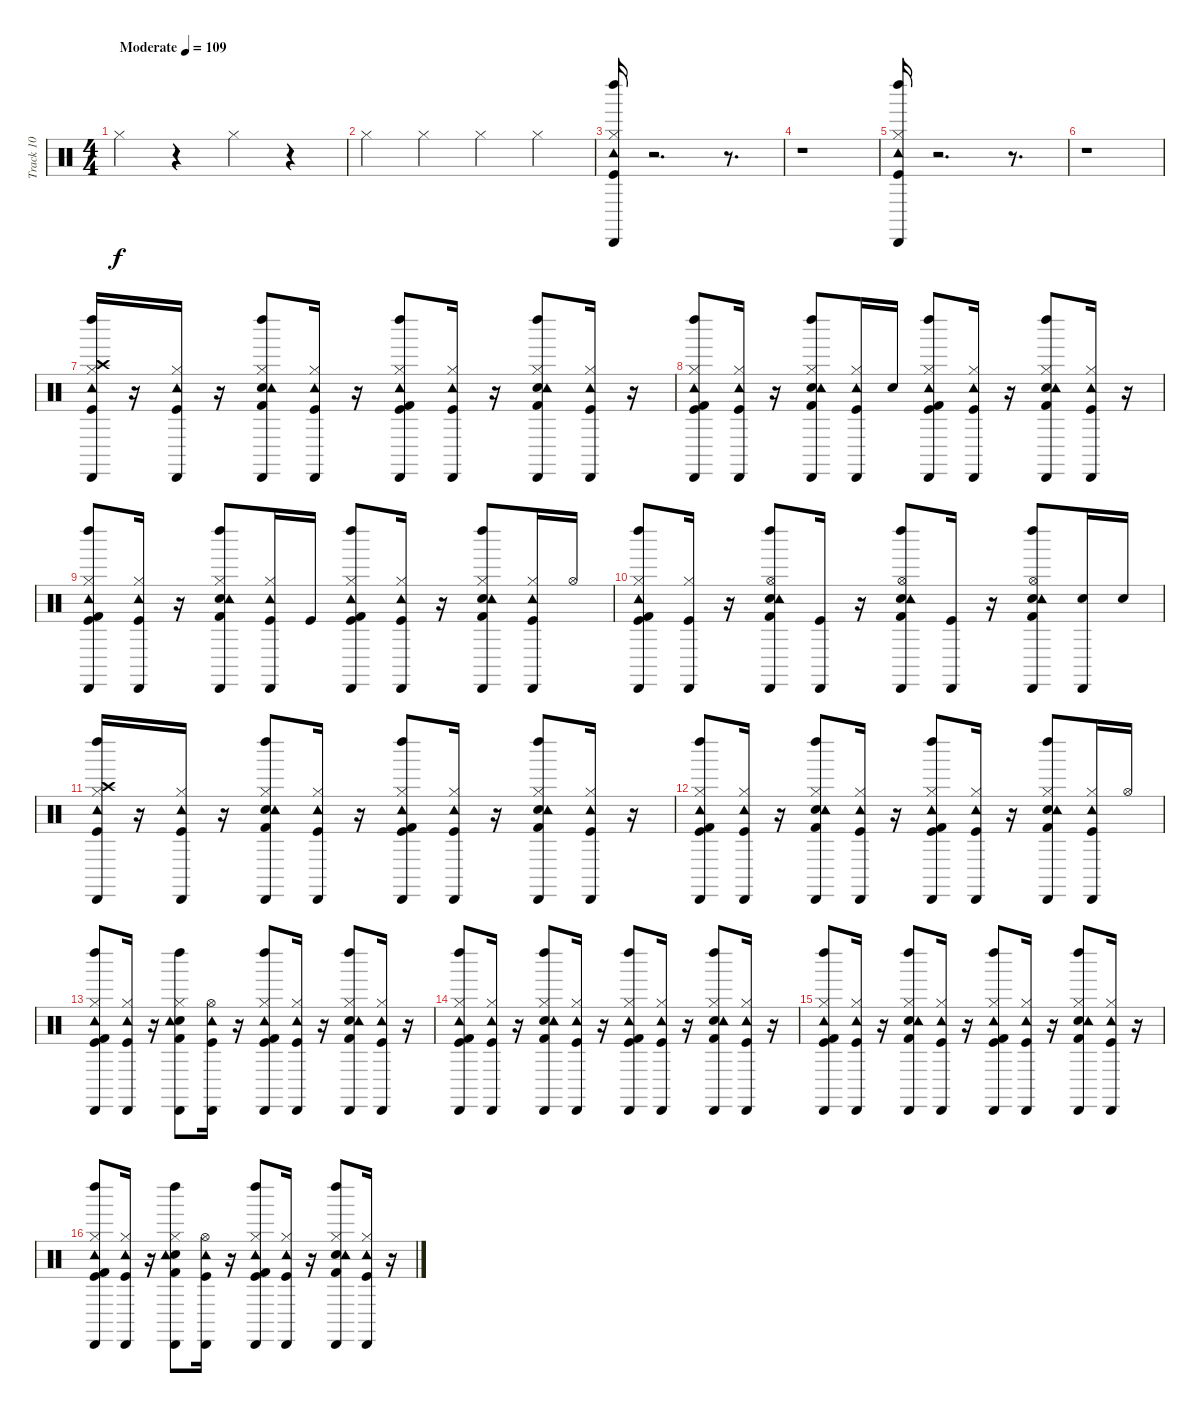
\track ("Track 10" "Track 10") {instrument percussion}
\staff {score}
\articulation defaults
\ts (4 4)
\tempo (109 "Moderate")
\clef neutral
\ks c "Hi-Hat (closed)".4{dy f}
r.4 "Hi-Hat (closed)".4 r.4 |
"Hi-Hat (closed)".4 "Hi-Hat (closed)".4 "Hi-Hat (closed)".4 "Hi-Hat (closed)".4 |
("Kick (hit)" "Hi-Hat (closed)" "Tambourine (hit)" "Left Maraca (hit)" "Cabasa (hit)").16 r.2{d} r.8{d} |
r.1 |
("Kick (hit)" "Hi-Hat (closed)" "Tambourine (hit)" "Left Maraca (hit)" "Cabasa (hit)").16 r.2{d} r.8{d} |
r.1 |
("Kick (hit)" "Hi-Hat (closed)" "Crash high (hit)" "Tambourine (hit)" "Left Maraca (hit)" "Cabasa (hit)").16 r.16 ("Kick (hit)" "Hi-Hat (closed)" "Tambourine (hit)" "Cabasa (hit)").16 r.16 ("Snare (hit) 2" "Hi-Hat (closed)" "Tambourine (hit)" "Left Maraca (hit)" "Cabasa (hit)" "Kick (hit) 2").8 ("Kick (hit)" "Hi-Hat (closed)" "Tambourine (hit)" "Cabasa (hit)").16 r.16 ("Kick (hit)" "Hi-Hat (closed)" "Tambourine (hit)" "Left Maraca (hit)" "Cabasa (hit)" "Kick (hit) 2").8 ("Kick (hit)" "Hi-Hat (closed)" "Tambourine (hit)" "Cabasa (hit)").16 r.16 ("Snare (hit) 2" "Hi-Hat (closed)" "Tambourine (hit)" "Left Maraca (hit)" "Cabasa (hit)" "Kick (hit) 2").8 ("Kick (hit)" "Hi-Hat (closed)" "Tambourine (hit)" "Cabasa (hit)").16 r.16 |
("Kick (hit)" "Hi-Hat (closed)" "Tambourine (hit)" "Left Maraca (hit)" "Cabasa (hit)" "Kick (hit) 2").8 ("Kick (hit)" "Hi-Hat (closed)" "Tambourine (hit)" "Cabasa (hit)").16 r.16 ("Snare (hit) 2" "Hi-Hat (closed)" "Tambourine (hit)" "Left Maraca (hit)" "Cabasa (hit)" "Kick (hit) 2").8 ("Kick (hit)" "Hi-Hat (closed)" "Tambourine (hit)" "Cabasa (hit)").16 "Snare (hit) 2".16 ("Kick (hit)" "Hi-Hat (closed)" "Tambourine (hit)" "Left Maraca (hit)" "Cabasa (hit)" "Kick (hit) 2").8 ("Kick (hit)" "Hi-Hat (closed)" "Tambourine (hit)" "Cabasa (hit)").16 r.16 ("Snare (hit) 2" "Hi-Hat (closed)" "Tambourine (hit)" "Left Maraca (hit)" "Cabasa (hit)" "Kick (hit) 2").8 ("Kick (hit)" "Hi-Hat (closed)" "Tambourine (hit)" "Cabasa (hit)").16 r.16 |
("Kick (hit)" "Hi-Hat (closed)" "Tambourine (hit)" "Left Maraca (hit)" "Cabasa (hit)" "Kick (hit) 2").8 ("Kick (hit)" "Hi-Hat (closed)" "Tambourine (hit)" "Cabasa (hit)").16 r.16 ("Snare (hit) 2" "Hi-Hat (closed)" "Tambourine (hit)" "Left Maraca (hit)" "Cabasa (hit)" "Kick (hit) 2").8 ("Kick (hit)" "Hi-Hat (closed)" "Tambourine (hit)" "Cabasa (hit)").16 "Kick (hit)".16 ("Kick (hit)" "Hi-Hat (closed)" "Tambourine (hit)" "Left Maraca (hit)" "Cabasa (hit)" "Kick (hit) 2").8 ("Kick (hit)" "Hi-Hat (closed)" "Tambourine (hit)" "Cabasa (hit)").16 r.16 ("Snare (hit) 2" "Hi-Hat (closed)" "Tambourine (hit)" "Left Maraca (hit)" "Cabasa (hit)" "Kick (hit) 2").8 ("Kick (hit)" "Hi-Hat (closed)" "Tambourine (hit)" "Cabasa (hit)").16 "Hi-Hat (open)".16 |
("Kick (hit)" "Hi-Hat (closed)" "Tambourine (hit)" "Left Maraca (hit)" "Cabasa (hit)" "Kick (hit) 2").8 ("Kick (hit)" "Hi-Hat (closed)" "Cabasa (hit)").16 r.16 ("Snare (hit) 2" "Hi-Hat (open)" "Tambourine (hit)" "Left Maraca (hit)" "Cabasa (hit)" "Kick (hit) 2").8 ("Kick (hit)" "Cabasa (hit)").16 r.16 ("Snare (hit) 2" "Hi-Hat (open)" "Tambourine (hit)" "Left Maraca (hit)" "Cabasa (hit)" "Kick (hit) 2").8 ("Kick (hit)" "Cabasa (hit)").16 r.16 ("Snare (hit) 2" "Hi-Hat (open)" "Tambourine (hit)" "Left Maraca (hit)" "Cabasa (hit)" "Kick (hit) 2").8 ("Snare (hit) 2" "Cabasa (hit)").16 "Snare (hit) 2".16 |
("Kick (hit)" "Hi-Hat (closed)" "Crash high (hit)" "Tambourine (hit)" "Left Maraca (hit)" "Cabasa (hit)").16 r.16 ("Kick (hit)" "Hi-Hat (closed)" "Tambourine (hit)" "Cabasa (hit)").16 r.16 ("Snare (hit) 2" "Hi-Hat (closed)" "Tambourine (hit)" "Left Maraca (hit)" "Cabasa (hit)" "Kick (hit) 2").8 ("Kick (hit)" "Hi-Hat (closed)" "Tambourine (hit)" "Cabasa (hit)").16 r.16 ("Kick (hit)" "Hi-Hat (closed)" "Tambourine (hit)" "Left Maraca (hit)" "Cabasa (hit)" "Kick (hit) 2").8 ("Kick (hit)" "Hi-Hat (closed)" "Tambourine (hit)" "Cabasa (hit)").16 r.16 ("Snare (hit) 2" "Hi-Hat (closed)" "Tambourine (hit)" "Left Maraca (hit)" "Cabasa (hit)" "Kick (hit) 2").8 ("Kick (hit)" "Hi-Hat (closed)" "Tambourine (hit)" "Cabasa (hit)").16 r.16 |
("Kick (hit)" "Hi-Hat (closed)" "Tambourine (hit)" "Left Maraca (hit)" "Cabasa (hit)" "Kick (hit) 2").8 ("Kick (hit)" "Hi-Hat (closed)" "Tambourine (hit)" "Cabasa (hit)").16 r.16 ("Snare (hit) 2" "Hi-Hat (closed)" "Tambourine (hit)" "Left Maraca (hit)" "Cabasa (hit)" "Kick (hit) 2").8 ("Kick (hit)" "Hi-Hat (closed)" "Tambourine (hit)" "Cabasa (hit)").16 r.16 ("Kick (hit)" "Hi-Hat (closed)" "Tambourine (hit)" "Left Maraca (hit)" "Cabasa (hit)" "Kick (hit) 2").8 ("Kick (hit)" "Hi-Hat (closed)" "Tambourine (hit)" "Cabasa (hit)").16 r.16 ("Snare (hit) 2" "Hi-Hat (closed)" "Tambourine (hit)" "Left Maraca (hit)" "Cabasa (hit)" "Kick (hit) 2").8 ("Kick (hit)" "Hi-Hat (closed)" "Tambourine (hit)" "Cabasa (hit)").16 "Hi-Hat (open)".16 |
("Kick (hit)" "Hi-Hat (closed)" "Tambourine (hit)" "Left Maraca (hit)" "Cabasa (hit)" "Kick (hit) 2").8 ("Kick (hit)" "Hi-Hat (closed)" "Tambourine (hit)" "Cabasa (hit)").16 r.16 ("Snare (hit) 2" "Hi-Hat (closed)" "Tambourine (hit)" "Left Maraca (hit)" "Cabasa (hit)" "Kick (hit) 2").8 ("Kick (hit)" "Hi-Hat (open)" "Tambourine (hit)" "Cabasa (hit)").16 r.16 ("Kick (hit)" "Hi-Hat (closed)" "Tambourine (hit)" "Left Maraca (hit)" "Cabasa (hit)" "Kick (hit) 2").8 ("Kick (hit)" "Hi-Hat (closed)" "Tambourine (hit)" "Cabasa (hit)").16 r.16 ("Snare (hit) 2" "Hi-Hat (closed)" "Tambourine (hit)" "Left Maraca (hit)" "Cabasa (hit)" "Kick (hit) 2").8 ("Kick (hit)" "Hi-Hat (closed)" "Tambourine (hit)" "Cabasa (hit)").16 r.16 |
("Kick (hit)" "Hi-Hat (closed)" "Tambourine (hit)" "Left Maraca (hit)" "Cabasa (hit)" "Kick (hit) 2").8 ("Kick (hit)" "Hi-Hat (closed)" "Tambourine (hit)" "Cabasa (hit)").16 r.16 ("Snare (hit) 2" "Hi-Hat (closed)" "Tambourine (hit)" "Left Maraca (hit)" "Cabasa (hit)" "Kick (hit) 2").8 ("Kick (hit)" "Hi-Hat (closed)" "Tambourine (hit)" "Cabasa (hit)").16 r.16 ("Kick (hit)" "Hi-Hat (closed)" "Tambourine (hit)" "Left Maraca (hit)" "Cabasa (hit)" "Kick (hit) 2").8 ("Kick (hit)" "Hi-Hat (closed)" "Tambourine (hit)" "Cabasa (hit)").16 r.16 ("Snare (hit) 2" "Hi-Hat (closed)" "Tambourine (hit)" "Left Maraca (hit)" "Cabasa (hit)" "Kick (hit) 2").8 ("Kick (hit)" "Hi-Hat (closed)" "Tambourine (hit)" "Cabasa (hit)").16 r.16 |
("Kick (hit)" "Hi-Hat (closed)" "Tambourine (hit)" "Left Maraca (hit)" "Cabasa (hit)" "Kick (hit) 2").8 ("Kick (hit)" "Hi-Hat (closed)" "Tambourine (hit)" "Cabasa (hit)").16 r.16 ("Snare (hit) 2" "Hi-Hat (closed)" "Tambourine (hit)" "Left Maraca (hit)" "Cabasa (hit)" "Kick (hit) 2").8 ("Kick (hit)" "Hi-Hat (closed)" "Tambourine (hit)" "Cabasa (hit)").16 r.16 ("Kick (hit)" "Hi-Hat (closed)" "Tambourine (hit)" "Left Maraca (hit)" "Cabasa (hit)" "Kick (hit) 2").8 ("Kick (hit)" "Hi-Hat (closed)" "Tambourine (hit)" "Cabasa (hit)").16 r.16 ("Snare (hit) 2" "Hi-Hat (closed)" "Tambourine (hit)" "Left Maraca (hit)" "Cabasa (hit)" "Kick (hit) 2").8 ("Kick (hit)" "Hi-Hat (closed)" "Tambourine (hit)" "Cabasa (hit)").16 r.16 |
("Kick (hit)" "Hi-Hat (closed)" "Tambourine (hit)" "Left Maraca (hit)" "Cabasa (hit)" "Kick (hit) 2").8 ("Kick (hit)" "Hi-Hat (closed)" "Tambourine (hit)" "Cabasa (hit)").16 r.16 ("Snare (hit) 2" "Hi-Hat (closed)" "Tambourine (hit)" "Left Maraca (hit)" "Cabasa (hit)" "Kick (hit) 2").8 ("Kick (hit)" "Hi-Hat (open)" "Tambourine (hit)" "Cabasa (hit)").16 r.16 ("Kick (hit)" "Hi-Hat (closed)" "Tambourine (hit)" "Left Maraca (hit)" "Cabasa (hit)" "Kick (hit) 2").8 ("Kick (hit)" "Hi-Hat (closed)" "Tambourine (hit)" "Cabasa (hit)").16 r.16 ("Snare (hit) 2" "Hi-Hat (closed)" "Tambourine (hit)" "Left Maraca (hit)" "Cabasa (hit)" "Kick (hit) 2").8 ("Kick (hit)" "Hi-Hat (closed)" "Tambourine (hit)" "Cabasa (hit)").16 r.16
